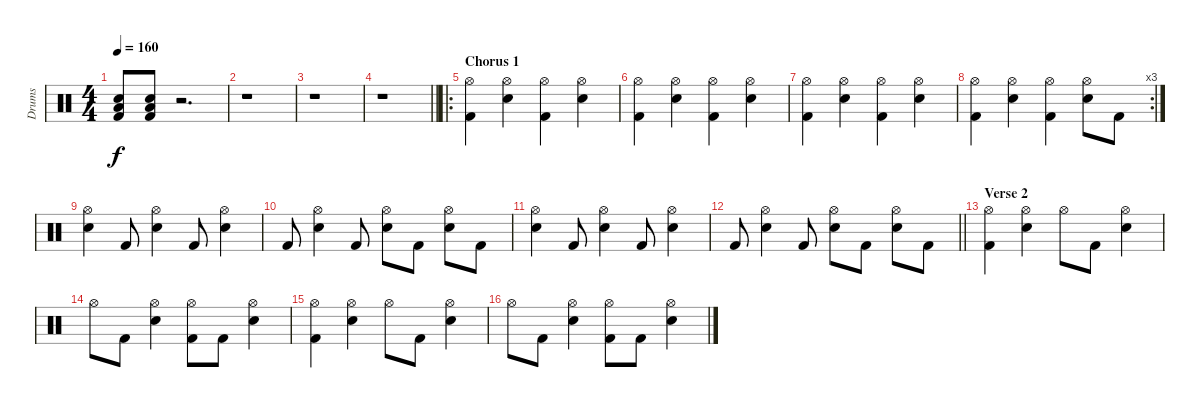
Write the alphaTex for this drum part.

\track ("Drums" "Drums") {instrument percussion}
\staff {score}
\articulation defaults
\ts (4 4)
\tempo 160
\clef neutral
\ks c
("Low Floor Tom (hit)" "Snare (hit) 2" "Kick (hit) 2").8{dy f} ("Low Floor Tom (hit)" "Snare (hit) 2" "Kick (hit) 2").8 r.2{d} |
r.1 |
r.1 |
\barLineRight lightlight
r.1 |
\ro
\section ("" "Chorus 1")
("Hi-Hat (open)" "Kick (hit) 2").4 ("Hi-Hat (open)" "Electric Snare (hit)").4 ("Hi-Hat (open)" "Kick (hit) 2").4 ("Hi-Hat (open)" "Electric Snare (hit)").4 |
("Hi-Hat (open)" "Kick (hit) 2").4 ("Hi-Hat (open)" "Electric Snare (hit)").4 ("Hi-Hat (open)" "Kick (hit) 2").4 ("Hi-Hat (open)" "Electric Snare (hit)").4 |
("Hi-Hat (open)" "Kick (hit) 2").4 ("Hi-Hat (open)" "Electric Snare (hit)").4 ("Hi-Hat (open)" "Kick (hit) 2").4 ("Hi-Hat (open)" "Electric Snare (hit)").4 |
\rc 3
("Hi-Hat (open)" "Kick (hit) 2").4 ("Hi-Hat (open)" "Electric Snare (hit)").4 ("Hi-Hat (open)" "Kick (hit) 2").4 ("Hi-Hat (open)" "Electric Snare (hit)").8 "Kick (hit) 2".8 |
("Hi-Hat (open)" "Electric Snare (hit)").4 "Kick (hit) 2".8 ("Hi-Hat (open)" "Electric Snare (hit)").4 "Kick (hit) 2".8 ("Hi-Hat (open)" "Electric Snare (hit)").4 |
"Kick (hit) 2".8 ("Hi-Hat (open)" "Electric Snare (hit)").4 "Kick (hit) 2".8 ("Hi-Hat (open)" "Electric Snare (hit)").8 "Kick (hit) 2".8 ("Hi-Hat (open)" "Electric Snare (hit)").8 "Kick (hit) 2".8 |
("Hi-Hat (open)" "Electric Snare (hit)").4 "Kick (hit) 2".8 ("Hi-Hat (open)" "Electric Snare (hit)").4 "Kick (hit) 2".8 ("Hi-Hat (open)" "Electric Snare (hit)").4 |
\barLineRight lightlight "Kick (hit) 2".8
("Hi-Hat (open)" "Electric Snare (hit)").4 "Kick (hit) 2".8 ("Hi-Hat (open)" "Electric Snare (hit)").8 "Kick (hit) 2".8 ("Hi-Hat (open)" "Electric Snare (hit)").8 "Kick (hit) 2".8 |
\section ("" "Verse 2")
("Hi-Hat (open)" "Kick (hit) 2").4 ("Hi-Hat (open)" "Electric Snare (hit)").4 "Hi-Hat (open)".8 "Kick (hit) 2".8 ("Hi-Hat (open)" "Electric Snare (hit)").4 |
"Hi-Hat (open)".8 "Kick (hit) 2".8 ("Hi-Hat (open)" "Electric Snare (hit)").4 ("Hi-Hat (open)" "Kick (hit) 2").8 "Kick (hit) 2".8 ("Hi-Hat (open)" "Electric Snare (hit)").4 |
("Hi-Hat (open)" "Kick (hit) 2").4 ("Hi-Hat (open)" "Electric Snare (hit)").4 "Hi-Hat (open)".8 "Kick (hit) 2".8 ("Hi-Hat (open)" "Electric Snare (hit)").4 |
"Hi-Hat (open)".8 "Kick (hit) 2".8 ("Hi-Hat (open)" "Electric Snare (hit)").4 ("Hi-Hat (open)" "Kick (hit) 2").8 "Kick (hit) 2".8 ("Hi-Hat (open)" "Electric Snare (hit)").4
